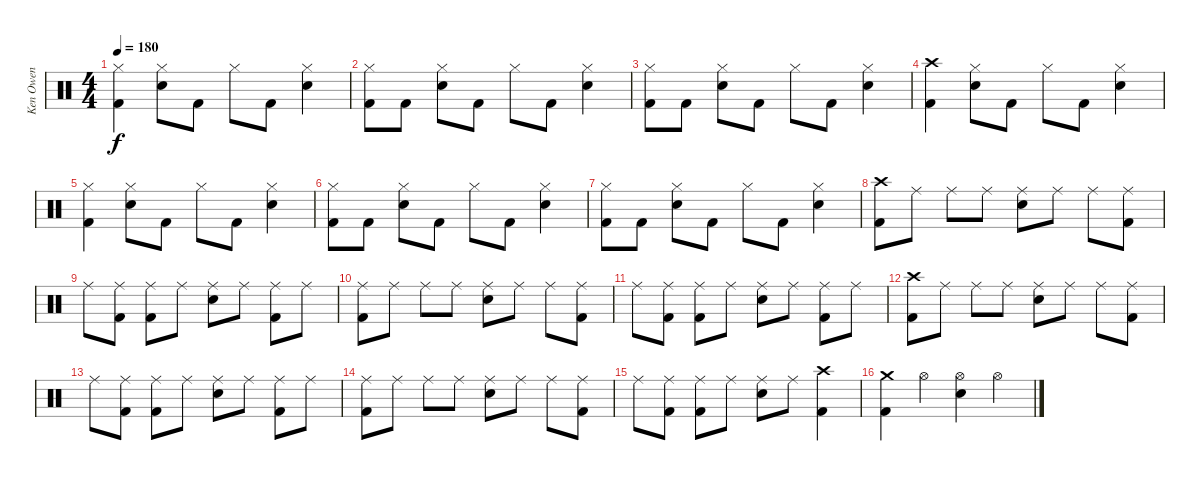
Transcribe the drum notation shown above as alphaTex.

\track ("Ken Owen" "Ken Owen") {instrument percussion}
\staff {score}
\articulation defaults
\ts (4 4)
\tempo 180
\clef neutral
\ks c
("Hi-Hat (closed)" "Kick (hit) 2").4{dy f} ("Hi-Hat (closed)" "Snare (hit) 2").8 "Kick (hit) 2".8 "Hi-Hat (closed)".8 "Kick (hit) 2".8 ("Hi-Hat (closed)" "Snare (hit) 2").4 |
("Hi-Hat (closed)" "Kick (hit) 2").8 "Kick (hit) 2".8 ("Hi-Hat (closed)" "Snare (hit) 2").8 "Kick (hit) 2".8 "Hi-Hat (closed)".8 "Kick (hit) 2".8 ("Hi-Hat (closed)" "Snare (hit) 2").4 |
("Hi-Hat (closed)" "Kick (hit) 2").8 "Kick (hit) 2".8 ("Hi-Hat (closed)" "Snare (hit) 2").8 "Kick (hit) 2".8 "Hi-Hat (closed)".8 "Kick (hit) 2".8 ("Hi-Hat (closed)" "Snare (hit) 2").4 |
("Crash high (hit)" "Kick (hit) 2").4 ("Hi-Hat (closed)" "Snare (hit) 2").8 "Kick (hit) 2".8 "Hi-Hat (closed)".8 "Kick (hit) 2".8 ("Hi-Hat (closed)" "Snare (hit) 2").4 |
("Hi-Hat (closed)" "Kick (hit) 2").4 ("Hi-Hat (closed)" "Snare (hit) 2").8 "Kick (hit) 2".8 "Hi-Hat (closed)".8 "Kick (hit) 2".8 ("Hi-Hat (closed)" "Snare (hit) 2").4 |
("Hi-Hat (closed)" "Kick (hit) 2").8 "Kick (hit) 2".8 ("Hi-Hat (closed)" "Snare (hit) 2").8 "Kick (hit) 2".8 "Hi-Hat (closed)".8 "Kick (hit) 2".8 ("Hi-Hat (closed)" "Snare (hit) 2").4 |
("Hi-Hat (closed)" "Kick (hit) 2").8 "Kick (hit) 2".8 ("Hi-Hat (closed)" "Snare (hit) 2").8 "Kick (hit) 2".8 "Hi-Hat (closed)".8 "Kick (hit) 2".8 ("Hi-Hat (closed)" "Snare (hit) 2").4 |
("Crash high (hit)" "Kick (hit) 2").8 "Ride (middle)".8 "Ride (middle)".8 "Ride (middle)".8 ("Ride (middle)" "Snare (hit) 2").8 "Ride (middle)".8 "Ride (middle)".8 ("Ride (middle)" "Kick (hit) 2").8 |
"Ride (middle)".8 ("Ride (middle)" "Kick (hit) 2").8 ("Ride (middle)" "Kick (hit) 2").8 "Ride (middle)".8 ("Ride (middle)" "Snare (hit) 2").8 "Ride (middle)".8 ("Ride (middle)" "Kick (hit) 2").8 "Ride (middle)".8 |
("Ride (middle)" "Kick (hit) 2").8 "Ride (middle)".8 "Ride (middle)".8 "Ride (middle)".8 ("Ride (middle)" "Snare (hit) 2").8 "Ride (middle)".8 "Ride (middle)".8 ("Ride (middle)" "Kick (hit) 2").8 |
"Ride (middle)".8 ("Ride (middle)" "Kick (hit) 2").8 ("Ride (middle)" "Kick (hit) 2").8 "Ride (middle)".8 ("Ride (middle)" "Snare (hit) 2").8 "Ride (middle)".8 ("Ride (middle)" "Kick (hit) 2").8 "Ride (middle)".8 |
("Crash high (hit)" "Kick (hit) 2").8 "Ride (middle)".8 "Ride (middle)".8 "Ride (middle)".8 ("Ride (middle)" "Snare (hit) 2").8 "Ride (middle)".8 "Ride (middle)".8 ("Ride (middle)" "Kick (hit) 2").8 |
"Ride (middle)".8 ("Ride (middle)" "Kick (hit) 2").8 ("Ride (middle)" "Kick (hit) 2").8 "Ride (middle)".8 ("Ride (middle)" "Snare (hit) 2").8 "Ride (middle)".8 ("Ride (middle)" "Kick (hit) 2").8 "Ride (middle)".8 |
("Ride (middle)" "Kick (hit) 2").8 "Ride (middle)".8 "Ride (middle)".8 "Ride (middle)".8 ("Ride (middle)" "Snare (hit) 2").8 "Ride (middle)".8 "Ride (middle)".8 ("Ride (middle)" "Kick (hit) 2").8 |
"Ride (middle)".8 ("Ride (middle)" "Kick (hit) 2").8 ("Ride (middle)" "Kick (hit) 2").8 "Ride (middle)".8 ("Ride (middle)" "Snare (hit) 2").8 "Ride (middle)".8 ("Crash high (hit)" "Kick (hit) 2").4 |
("Crash medium (hit)" "Kick (hit) 2").4 "Hi-Hat (open)".4 ("Hi-Hat (open)" "Snare (hit) 2").4 "Hi-Hat (open)".4
